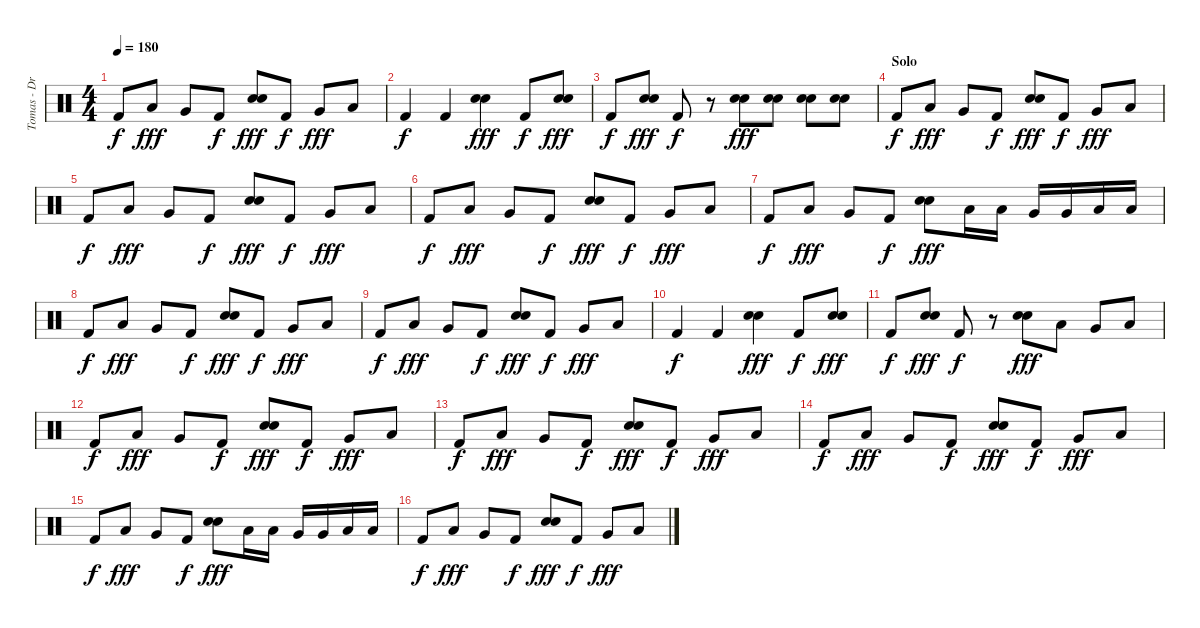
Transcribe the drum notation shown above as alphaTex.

\track ("Tomas - Drums" "Tomas - Dr") {instrument percussion}
\staff {score}
\articulation defaults
\ts (4 4)
\tempo 180
\clef neutral
\ks c "Kick (hit) 2".8{dy f} "Low Tom (hit)".8{dy fff} "Very Low Tom (hit)".8 "Kick (hit) 2".8{dy f}
("Electric Snare (hit)" "Electric Snare (hit)").8{dy fff} "Kick (hit) 2".8{dy f} "Very Low Tom (hit)".8{dy fff} "Low Floor Tom (hit)".8 |
"Kick (hit) 2".4{dy f} "Kick (hit) 2".4 ("Electric Snare (hit)" "Electric Snare (hit)").4{dy fff} "Kick (hit) 2".8{dy f} ("Electric Snare (hit)" "Electric Snare (hit)").8{dy fff} |
"Kick (hit) 2".8{dy f} ("Electric Snare (hit)" "Electric Snare (hit)").8{dy fff} "Kick (hit) 2".8{dy f} r.8 ("Electric Snare (hit)" "Electric Snare (hit)").8{dy fff} ("Electric Snare (hit)" "Electric Snare (hit)").8 ("Electric Snare (hit)" "Electric Snare (hit)").8 ("Electric Snare (hit)" "Electric Snare (hit)").8 |
\section ("" "Solo")
"Kick (hit) 2".8{dy f} "Low Tom (hit)".8{dy fff} "Very Low Tom (hit)".8 "Kick (hit) 2".8{dy f} ("Electric Snare (hit)" "Electric Snare (hit)").8{dy fff} "Kick (hit) 2".8{dy f} "Very Low Tom (hit)".8{dy fff} "Low Tom (hit)".8 |
"Kick (hit) 2".8{dy f} "Low Tom (hit)".8{dy fff} "Very Low Tom (hit)".8 "Kick (hit) 2".8{dy f} ("Electric Snare (hit)" "Electric Snare (hit)").8{dy fff} "Kick (hit) 2".8{dy f} "Very Low Tom (hit)".8{dy fff} "Low Tom (hit)".8 |
"Kick (hit) 2".8{dy f} "Low Tom (hit)".8{dy fff} "Very Low Tom (hit)".8 "Kick (hit) 2".8{dy f} ("Electric Snare (hit)" "Electric Snare (hit)").8{dy fff} "Kick (hit) 2".8{dy f} "Very Low Tom (hit)".8{dy fff} "Low Tom (hit)".8 |
"Kick (hit) 2".8{dy f} "Low Tom (hit)".8{dy fff} "Very Low Tom (hit)".8 "Kick (hit) 2".8{dy f} ("Electric Snare (hit)" "Electric Snare (hit)").8{dy fff} "Low Tom (hit)".16 "Low Tom (hit)".16 "Very Low Tom (hit)".16 "Very Low Tom (hit)".16 "Low Floor Tom (hit)".16 "Low Floor Tom (hit)".16 |
"Kick (hit) 2".8{dy f} "Low Tom (hit)".8{dy fff} "Very Low Tom (hit)".8 "Kick (hit) 2".8{dy f} ("Electric Snare (hit)" "Electric Snare (hit)").8{dy fff} "Kick (hit) 2".8{dy f} "Very Low Tom (hit)".8{dy fff} "Low Tom (hit)".8 |
"Kick (hit) 2".8{dy f} "Low Tom (hit)".8{dy fff} "Very Low Tom (hit)".8 "Kick (hit) 2".8{dy f} ("Electric Snare (hit)" "Electric Snare (hit)").8{dy fff} "Kick (hit) 2".8{dy f} "Very Low Tom (hit)".8{dy fff} "Low Tom (hit)".8 |
"Kick (hit) 2".4{dy f} "Kick (hit) 2".4 ("Electric Snare (hit)" "Electric Snare (hit)").4{dy fff} "Kick (hit) 2".8{dy f} ("Electric Snare (hit)" "Electric Snare (hit)").8{dy fff} |
"Kick (hit) 2".8{dy f} ("Electric Snare (hit)" "Electric Snare (hit)").8{dy fff} "Kick (hit) 2".8{dy f} r.8 ("Electric Snare (hit)" "Electric Snare (hit)").8{dy fff} "Low Tom (hit)".8 "Very Low Tom (hit)".8 "Low Floor Tom (hit)".8 |
"Kick (hit) 2".8{dy f} "Low Tom (hit)".8{dy fff} "Very Low Tom (hit)".8 "Kick (hit) 2".8{dy f} ("Electric Snare (hit)" "Electric Snare (hit)").8{dy fff} "Kick (hit) 2".8{dy f} "Very Low Tom (hit)".8{dy fff} "Low Tom (hit)".8 |
"Kick (hit) 2".8{dy f} "Low Tom (hit)".8{dy fff} "Very Low Tom (hit)".8 "Kick (hit) 2".8{dy f} ("Electric Snare (hit)" "Electric Snare (hit)").8{dy fff} "Kick (hit) 2".8{dy f} "Very Low Tom (hit)".8{dy fff} "Low Tom (hit)".8 |
"Kick (hit) 2".8{dy f} "Low Tom (hit)".8{dy fff} "Very Low Tom (hit)".8 "Kick (hit) 2".8{dy f} ("Electric Snare (hit)" "Electric Snare (hit)").8{dy fff} "Kick (hit) 2".8{dy f} "Very Low Tom (hit)".8{dy fff} "Low Tom (hit)".8 |
"Kick (hit) 2".8{dy f} "Low Tom (hit)".8{dy fff} "Very Low Tom (hit)".8 "Kick (hit) 2".8{dy f} ("Electric Snare (hit)" "Electric Snare (hit)").8{dy fff} "Low Tom (hit)".16 "Low Tom (hit)".16 "Very Low Tom (hit)".16 "Very Low Tom (hit)".16 "Low Floor Tom (hit)".16 "Low Floor Tom (hit)".16 |
"Kick (hit) 2".8{dy f} "Low Tom (hit)".8{dy fff} "Very Low Tom (hit)".8 "Kick (hit) 2".8{dy f} ("Electric Snare (hit)" "Electric Snare (hit)").8{dy fff} "Kick (hit) 2".8{dy f} "Very Low Tom (hit)".8{dy fff} "Low Floor Tom (hit)".8
